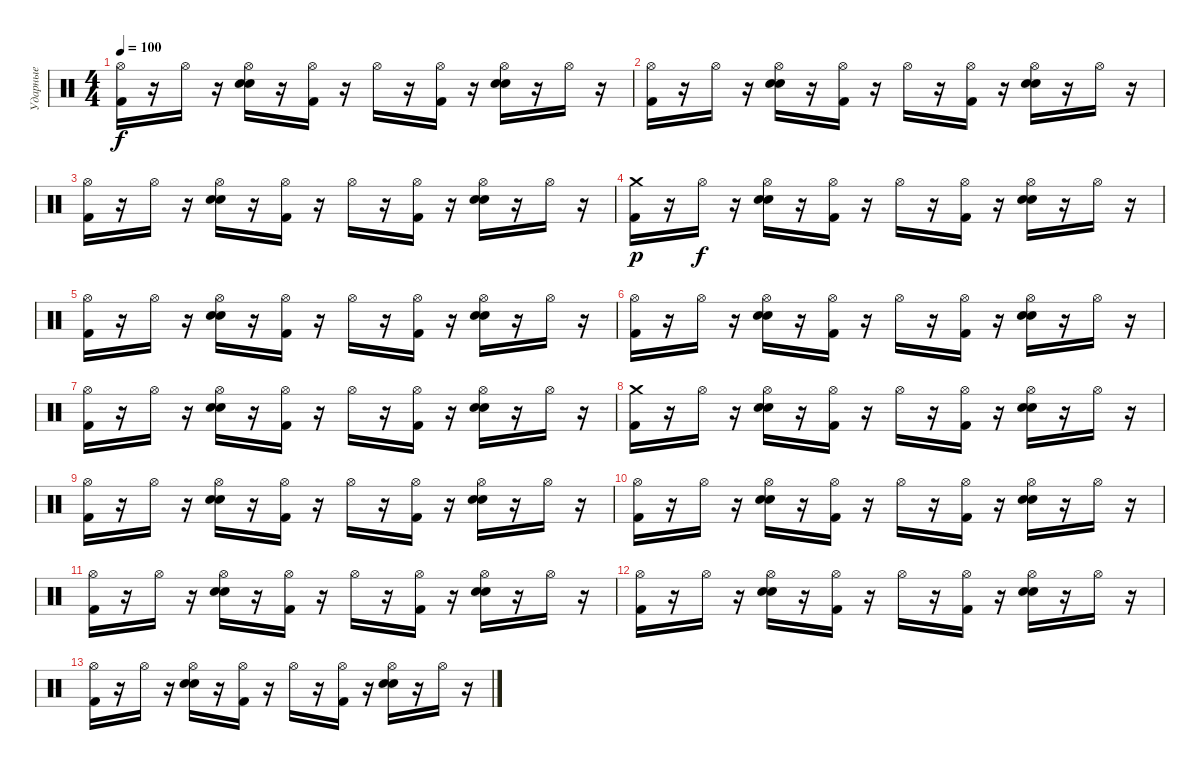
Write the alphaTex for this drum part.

\track ("Ударные" "Ударные") {instrument percussion}
\staff {score}
\articulation defaults
\ts (4 4)
\tempo 100
\clef neutral
\ks c
("Hi-Hat (open)" "Kick (hit) 2").16{dy f} r.16 "Hi-Hat (open)".16 r.16 ("Hi-Hat (open)" "Electric Snare (hit)" "Electric Snare (hit)").16 r.16 ("Hi-Hat (open)" "Kick (hit) 2").16 r.16 "Hi-Hat (open)".16 r.16 ("Hi-Hat (open)" "Kick (hit) 2").16 r.16 ("Hi-Hat (open)" "Electric Snare (hit)" "Electric Snare (hit)").16 r.16 "Hi-Hat (open)".16 r.16 |
("Hi-Hat (open)" "Kick (hit) 2").16 r.16 "Hi-Hat (open)".16 r.16 ("Hi-Hat (open)" "Electric Snare (hit)" "Electric Snare (hit)").16 r.16 ("Hi-Hat (open)" "Kick (hit) 2").16 r.16 "Hi-Hat (open)".16 r.16 ("Hi-Hat (open)" "Kick (hit) 2").16 r.16 ("Hi-Hat (open)" "Electric Snare (hit)" "Electric Snare (hit)").16 r.16 "Hi-Hat (open)".16 r.16 |
("Hi-Hat (open)" "Kick (hit) 2").16 r.16 "Hi-Hat (open)".16 r.16 ("Hi-Hat (open)" "Electric Snare (hit)" "Electric Snare (hit)").16 r.16 ("Hi-Hat (open)" "Kick (hit) 2").16 r.16 "Hi-Hat (open)".16 r.16 ("Hi-Hat (open)" "Kick (hit) 2").16 r.16 ("Hi-Hat (open)" "Electric Snare (hit)" "Electric Snare (hit)").16 r.16 "Hi-Hat (open)".16 r.16 |
("Crash medium (hit)" "Kick (hit) 2").16{dy p} r.16 "Hi-Hat (open)".16{dy f} r.16 ("Hi-Hat (open)" "Electric Snare (hit)" "Electric Snare (hit)").16 r.16 ("Hi-Hat (open)" "Kick (hit) 2").16 r.16 "Hi-Hat (open)".16 r.16 ("Hi-Hat (open)" "Kick (hit) 2").16 r.16 ("Hi-Hat (open)" "Electric Snare (hit)" "Electric Snare (hit)").16 r.16 "Hi-Hat (open)".16 r.16 |
("Hi-Hat (open)" "Kick (hit) 2").16 r.16 "Hi-Hat (open)".16 r.16 ("Hi-Hat (open)" "Electric Snare (hit)" "Electric Snare (hit)").16 r.16 ("Hi-Hat (open)" "Kick (hit) 2").16 r.16 "Hi-Hat (open)".16 r.16 ("Hi-Hat (open)" "Kick (hit) 2").16 r.16 ("Hi-Hat (open)" "Electric Snare (hit)" "Electric Snare (hit)").16 r.16 "Hi-Hat (open)".16 r.16 |
("Hi-Hat (open)" "Kick (hit) 2").16 r.16 "Hi-Hat (open)".16 r.16 ("Hi-Hat (open)" "Electric Snare (hit)" "Electric Snare (hit)").16 r.16 ("Hi-Hat (open)" "Kick (hit) 2").16 r.16 "Hi-Hat (open)".16 r.16 ("Hi-Hat (open)" "Kick (hit) 2").16 r.16 ("Hi-Hat (open)" "Electric Snare (hit)" "Electric Snare (hit)").16 r.16 "Hi-Hat (open)".16 r.16 |
("Hi-Hat (open)" "Kick (hit) 2").16 r.16 "Hi-Hat (open)".16 r.16 ("Hi-Hat (open)" "Electric Snare (hit)" "Electric Snare (hit)").16 r.16 ("Hi-Hat (open)" "Kick (hit) 2").16 r.16 "Hi-Hat (open)".16 r.16 ("Hi-Hat (open)" "Kick (hit) 2").16 r.16 ("Hi-Hat (open)" "Electric Snare (hit)" "Electric Snare (hit)").16 r.16 "Hi-Hat (open)".16 r.16 |
("Crash medium (hit)" "Kick (hit) 2").16 r.16 "Hi-Hat (open)".16 r.16 ("Hi-Hat (open)" "Electric Snare (hit)" "Electric Snare (hit)").16 r.16 ("Hi-Hat (open)" "Kick (hit) 2").16 r.16 "Hi-Hat (open)".16 r.16 ("Hi-Hat (open)" "Kick (hit) 2").16 r.16 ("Hi-Hat (open)" "Electric Snare (hit)" "Electric Snare (hit)").16 r.16 "Hi-Hat (open)".16 r.16 |
("Hi-Hat (open)" "Kick (hit) 2").16 r.16 "Hi-Hat (open)".16 r.16 ("Hi-Hat (open)" "Electric Snare (hit)" "Electric Snare (hit)").16 r.16 ("Hi-Hat (open)" "Kick (hit) 2").16 r.16 "Hi-Hat (open)".16 r.16 ("Hi-Hat (open)" "Kick (hit) 2").16 r.16 ("Hi-Hat (open)" "Electric Snare (hit)" "Electric Snare (hit)").16 r.16 "Hi-Hat (open)".16 r.16 |
("Hi-Hat (open)" "Kick (hit) 2").16 r.16 "Hi-Hat (open)".16 r.16 ("Hi-Hat (open)" "Electric Snare (hit)" "Electric Snare (hit)").16 r.16 ("Hi-Hat (open)" "Kick (hit) 2").16 r.16 "Hi-Hat (open)".16 r.16 ("Hi-Hat (open)" "Kick (hit) 2").16 r.16 ("Hi-Hat (open)" "Electric Snare (hit)" "Electric Snare (hit)").16 r.16 "Hi-Hat (open)".16 r.16 |
("Hi-Hat (open)" "Kick (hit) 2").16 r.16 "Hi-Hat (open)".16 r.16 ("Hi-Hat (open)" "Electric Snare (hit)" "Electric Snare (hit)").16 r.16 ("Hi-Hat (open)" "Kick (hit) 2").16 r.16 "Hi-Hat (open)".16 r.16 ("Hi-Hat (open)" "Kick (hit) 2").16 r.16 ("Hi-Hat (open)" "Electric Snare (hit)" "Electric Snare (hit)").16 r.16 "Hi-Hat (open)".16 r.16 |
("Hi-Hat (open)" "Kick (hit) 2").16 r.16 "Hi-Hat (open)".16 r.16 ("Hi-Hat (open)" "Electric Snare (hit)" "Electric Snare (hit)").16 r.16 ("Hi-Hat (open)" "Kick (hit) 2").16 r.16 "Hi-Hat (open)".16 r.16 ("Hi-Hat (open)" "Kick (hit) 2").16 r.16 ("Hi-Hat (open)" "Electric Snare (hit)" "Electric Snare (hit)").16 r.16 "Hi-Hat (open)".16 r.16 |
("Hi-Hat (open)" "Kick (hit) 2").16 r.16 "Hi-Hat (open)".16 r.16 ("Hi-Hat (open)" "Electric Snare (hit)" "Electric Snare (hit)").16 r.16 ("Hi-Hat (open)" "Kick (hit) 2").16 r.16 "Hi-Hat (open)".16 r.16 ("Hi-Hat (open)" "Kick (hit) 2").16 r.16 ("Hi-Hat (open)" "Electric Snare (hit)" "Electric Snare (hit)").16 r.16 "Hi-Hat (open)".16 r.16
